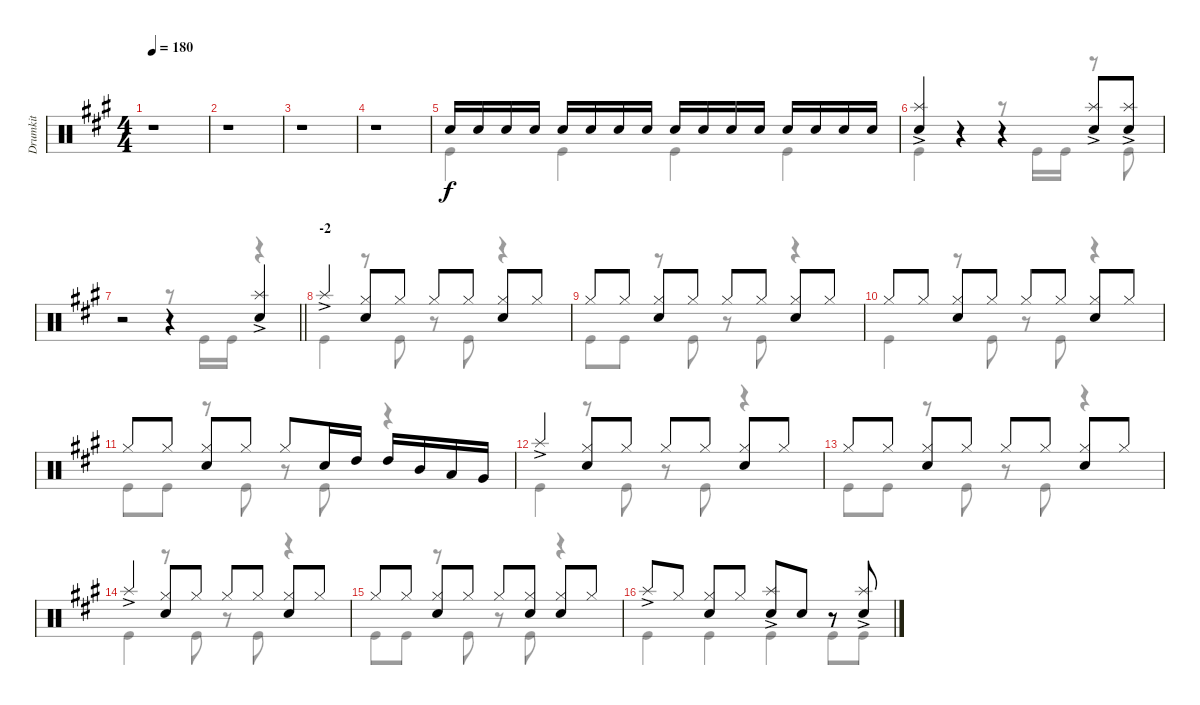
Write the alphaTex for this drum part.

\track ("Drumkit" "Drumkit") {instrument percussion}
\staff {score}
\articulation defaults
\voice
\ts (4 4)
\tempo 180
\clef neutral
\ks a
r.1{dy f} |
r.1 |
r.1 |
r.1 |
"Snare (hit) 2".16 "Snare (hit) 2".16 "Snare (hit) 2".16 "Snare (hit) 2".16 "Snare (hit) 2".16 "Snare (hit) 2".16 "Snare (hit) 2".16 "Snare (hit) 2".16 "Snare (hit) 2".16 "Snare (hit) 2".16 "Snare (hit) 2".16 "Snare (hit) 2".16 "Snare (hit) 2".16 "Snare (hit) 2".16 "Snare (hit) 2".16 "Snare (hit) 2".16 |
("Snare (hit) 2" "Splash (hit)"{ac}).4 r.4 r.4 ("Splash (hit)"{ac} "Snare (hit) 2").8 ("Splash (hit)"{ac} "Snare (hit) 2").8 |
\barLineRight lightlight
r.2 r.4 ("Snare (hit) 2" "Splash (hit)"{ac}).4 |
\section ("" "-2")
"Splash (hit)"{ac}.4 ("Snare (hit) 2" "Hi-Hat (closed)").8 "Hi-Hat (closed)".8 "Hi-Hat (closed)".8 "Hi-Hat (closed)".8 ("Hi-Hat (closed)" "Snare (hit) 2").8 "Hi-Hat (closed)".8 |
"Hi-Hat (closed)".8 "Hi-Hat (closed)".8 ("Hi-Hat (closed)" "Snare (hit) 2").8 "Hi-Hat (closed)".8 "Hi-Hat (closed)".8 "Hi-Hat (closed)".8 ("Hi-Hat (closed)" "Snare (hit) 2").8 "Hi-Hat (closed)".8 |
"Hi-Hat (closed)".8 "Hi-Hat (closed)".8 ("Snare (hit) 2" "Hi-Hat (closed)").8 "Hi-Hat (closed)".8 "Hi-Hat (closed)".8 "Hi-Hat (closed)".8 ("Hi-Hat (closed)" "Snare (hit) 2").8 "Hi-Hat (closed)".8 |
"Hi-Hat (closed)".8 "Hi-Hat (closed)".8 ("Hi-Hat (closed)" "Snare (hit) 2").8 "Hi-Hat (closed)".8 "Hi-Hat (closed)".8 "Snare (hit) 2".16 "High Tom (hit)".16 "High Tom (hit)".16 "Mid Tom (hit)".16 "Low Tom (hit)".16 "Very Low Tom (hit)".16 |
"Splash (hit)"{ac}.4 ("Snare (hit) 2" "Hi-Hat (closed)").8 "Hi-Hat (closed)".8 "Hi-Hat (closed)".8 "Hi-Hat (closed)".8 ("Hi-Hat (closed)" "Snare (hit) 2").8 "Hi-Hat (closed)".8 |
"Hi-Hat (closed)".8 "Hi-Hat (closed)".8 ("Hi-Hat (closed)" "Snare (hit) 2").8 "Hi-Hat (closed)".8 "Hi-Hat (closed)".8 "Hi-Hat (closed)".8 ("Hi-Hat (closed)" "Snare (hit) 2").8 "Hi-Hat (closed)".8 |
"Splash (hit)"{ac}.4 ("Snare (hit) 2" "Hi-Hat (closed)").8 "Hi-Hat (closed)".8 "Hi-Hat (closed)".8 "Hi-Hat (closed)".8 ("Hi-Hat (closed)" "Snare (hit) 2").8 "Hi-Hat (closed)".8 |
"Hi-Hat (closed)".8 "Hi-Hat (closed)".8 ("Hi-Hat (closed)" "Snare (hit) 2").8 "Hi-Hat (closed)".8 "Hi-Hat (closed)".8 ("Snare (hit) 2" "Hi-Hat (closed)").8 ("Snare (hit) 2" "Hi-Hat (closed)").8 "Hi-Hat (closed)".8 |
"Splash (hit)"{ac}.8 "Hi-Hat (closed)".8 ("Hi-Hat (closed)" "Snare (hit) 2").8 "Hi-Hat (closed)".8 ("Splash (hit)"{ac} "Snare (hit) 2").8 "Snare (hit) 2".8 r.8 ("Splash (hit)"{ac} "Snare (hit) 2").8
\voice
\clef neutral
\ottava regular
\simile none
\ks a
r.1{dy f} |
r.1 |
r.1 |
r.1 |
"Kick (hit)".4 "Kick (hit)".4 "Kick (hit)".4 "Kick (hit)".4 |
"Kick (hit)".4 r.4 r.8 "Kick (hit)".16 "Kick (hit)".16 r.8 "Kick (hit)".8 |
\barLineRight lightlight
r.2 r.8 "Kick (hit)".16 "Kick (hit)".16 r.4 |
"Kick (hit)".4 r.8 "Kick (hit)".8 r.8 "Kick (hit)".8 r.4 |
"Kick (hit)".8 "Kick (hit)".8 r.8 "Kick (hit)".8 r.8 "Kick (hit)".8 r.4 |
"Kick (hit)".4 r.8 "Kick (hit)".8 r.8 "Kick (hit)".8 r.4 |
"Kick (hit)".8 "Kick (hit)".8 r.8 "Kick (hit)".8 r.8 "Kick (hit)".8 r.4 |
"Kick (hit)".4 r.8 "Kick (hit)".8 r.8 "Kick (hit)".8 r.4 |
"Kick (hit)".8 "Kick (hit)".8 r.8 "Kick (hit)".8 r.8 "Kick (hit)".8 r.4 |
"Kick (hit)".4 r.8 "Kick (hit)".8 r.8 "Kick (hit)".8 r.4 |
"Kick (hit)".8 "Kick (hit)".8 r.8 "Kick (hit)".8 r.8 "Kick (hit)".8 r.4 |
"Kick (hit)".4 "Kick (hit)".4 "Kick (hit)".4 "Kick (hit)".8 "Kick (hit)".8
